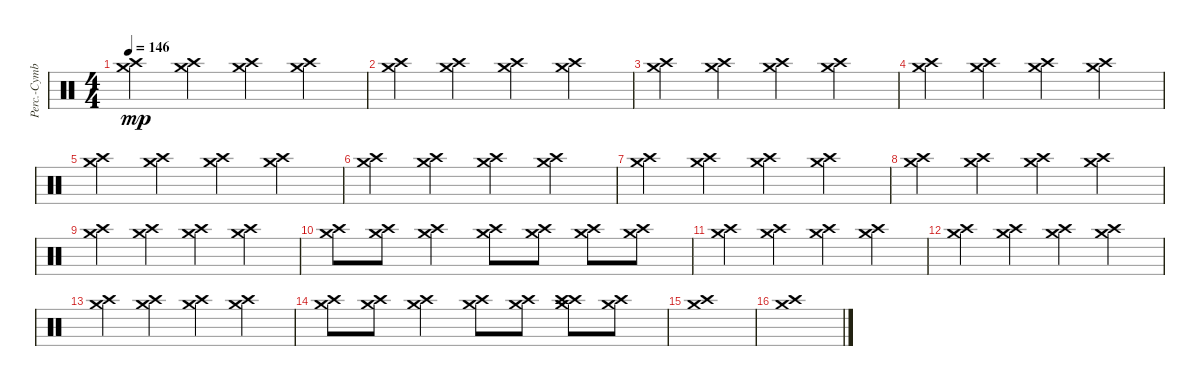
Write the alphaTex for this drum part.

\track ("Perc.-Cymbals" "Perc.-Cymb") {instrument percussion}
\staff {score}
\articulation defaults
\ts (4 4)
\tempo 146
\clef neutral
\ks c
("Crash high (hit)" "Crash medium (hit)").4{dy mp} ("Crash high (hit)" "Crash medium (hit)").4 ("Crash high (hit)" "Crash medium (hit)").4 ("Crash high (hit)" "Crash medium (hit)").4 |
("Crash high (hit)" "Crash medium (hit)").4 ("Crash high (hit)" "Crash medium (hit)").4 ("Crash high (hit)" "Crash medium (hit)").4 ("Crash high (hit)" "Crash medium (hit)").4 |
("Crash high (hit)" "Crash medium (hit)").4 ("Crash high (hit)" "Crash medium (hit)").4 ("Crash high (hit)" "Crash medium (hit)").4 ("Crash high (hit)" "Crash medium (hit)").4 |
("Crash high (hit)" "Crash medium (hit)").4 ("Crash high (hit)" "Crash medium (hit)").4 ("Crash high (hit)" "Crash medium (hit)").4 ("Crash high (hit)" "Crash medium (hit)").4 |
("Crash high (hit)" "Crash medium (hit)").4 ("Crash high (hit)" "Crash medium (hit)").4 ("Crash high (hit)" "Crash medium (hit)").4 ("Crash high (hit)" "Crash medium (hit)").4 |
("Crash high (hit)" "Crash medium (hit)").4 ("Crash high (hit)" "Crash medium (hit)").4 ("Crash high (hit)" "Crash medium (hit)").4 ("Crash high (hit)" "Crash medium (hit)").4 |
("Crash high (hit)" "Crash medium (hit)").4 ("Crash high (hit)" "Crash medium (hit)").4 ("Crash high (hit)" "Crash medium (hit)").4 ("Crash high (hit)" "Crash medium (hit)").4 |
("Crash high (hit)" "Crash medium (hit)").4 ("Crash high (hit)" "Crash medium (hit)").4 ("Crash high (hit)" "Crash medium (hit)").4 ("Crash high (hit)" "Crash medium (hit)").4 |
("Crash high (hit)" "Crash medium (hit)").4 ("Crash high (hit)" "Crash medium (hit)").4 ("Crash high (hit)" "Crash medium (hit)").4 ("Crash high (hit)" "Crash medium (hit)").4 |
("Crash high (hit)" "Crash medium (hit)").8 ("Crash high (hit)" "Crash medium (hit)").8 ("Crash high (hit)" "Crash medium (hit)").4 ("Crash high (hit)" "Crash medium (hit)").8 ("Crash high (hit)" "Crash medium (hit)").8 ("Crash high (hit)" "Crash medium (hit)").8 ("Crash high (hit)" "Crash medium (hit)").8 |
("Crash high (hit)" "Crash medium (hit)").4 ("Crash high (hit)" "Crash medium (hit)").4 ("Crash high (hit)" "Crash medium (hit)").4 ("Crash high (hit)" "Crash medium (hit)").4 |
("Crash high (hit)" "Crash medium (hit)").4 ("Crash high (hit)" "Crash medium (hit)").4 ("Crash high (hit)" "Crash medium (hit)").4 ("Crash high (hit)" "Crash medium (hit)").4 |
("Crash high (hit)" "Crash medium (hit)").4 ("Crash high (hit)" "Crash medium (hit)").4 ("Crash high (hit)" "Crash medium (hit)").4 ("Crash high (hit)" "Crash medium (hit)").4 |
("Crash high (hit)" "Crash medium (hit)").8 ("Crash high (hit)" "Crash medium (hit)").8 ("Crash high (hit)" "Crash medium (hit)").4 ("Crash high (hit)" "Crash medium (hit)").8 ("Crash high (hit)" "Crash medium (hit)").8 ("Crash high (hit)" "Crash high (hit)" "Crash medium (hit)").8 ("Crash high (hit)" "Crash medium (hit)").8 |
("Crash high (hit)" "Crash medium (hit)").1 |
("Crash high (hit)" "Crash medium (hit)").1
